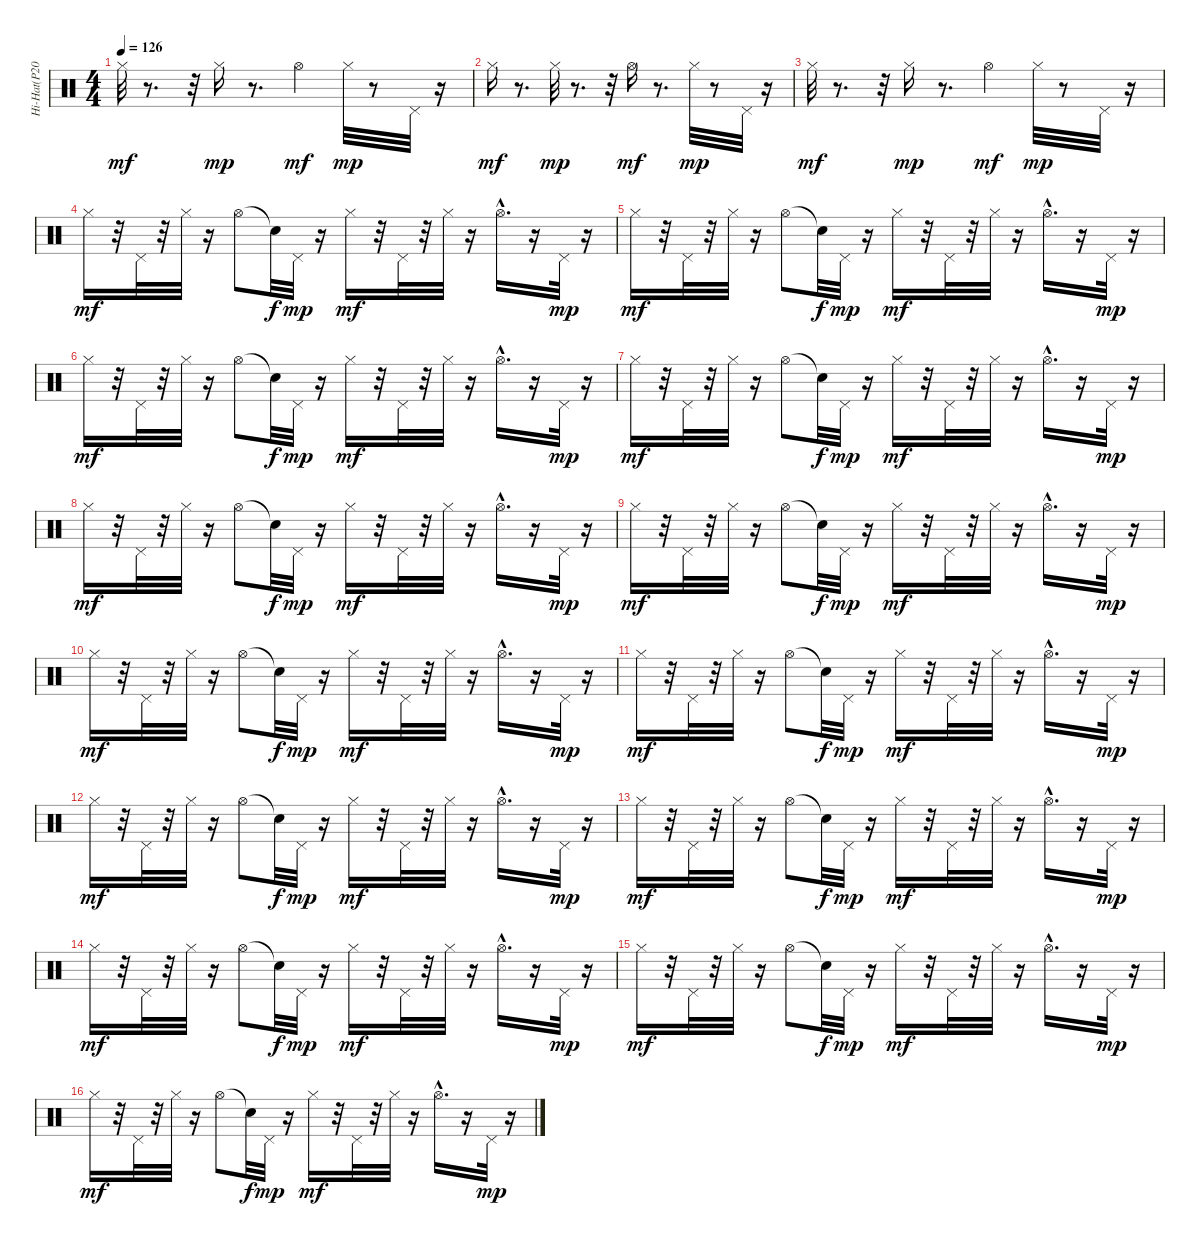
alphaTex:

\track ("Hi-Hat(P201)" "Hi-Hat(P20") {instrument percussion}
\staff {score}
\articulation defaults
\ts (4 4)
\tempo 126
\clef neutral
\ks c "Hi-Hat (closed)".32{dy mf}
r.8{d} r.32 "Hi-Hat (closed)".16{dy mp} r.8{d} "Hi-Hat (open)".4{dy mf} "Hi-Hat (closed)".32{dy mp} r.8 "Pedal Hi-Hat (hit)".32 r.16 |
"Hi-Hat (closed)".16{dy mf} r.8{d} "Hi-Hat (closed)".32{dy mp} r.8{d} r.32 "Hi-Hat (open)".16{dy mf} r.8{d} "Hi-Hat (closed)".32{dy mp} r.8 "Pedal Hi-Hat (hit)".32 r.16 |
"Hi-Hat (closed)".32{dy mf} r.8{d} r.32 "Hi-Hat (closed)".16{dy mp} r.8{d} "Hi-Hat (open)".4{dy mf} "Hi-Hat (closed)".32{dy mp} r.8 "Pedal Hi-Hat (hit)".32 r.16 |
"Hi-Hat (closed)".16{dy mf} r.32 "Pedal Hi-Hat (hit)".32 r.32 "Hi-Hat (closed)".32 r.16 "Hi-Hat (open)".8 "Snare (hit)"{t}.32{dy f} "Pedal Hi-Hat (hit)".32{dy mp} r.16 "Hi-Hat (closed)".16{dy mf} r.32 "Pedal Hi-Hat (hit)".32 r.32 "Hi-Hat (closed)".32 r.16 "Hi-Hat (open)"{hac}.16{d} r.16 "Pedal Hi-Hat (hit)".32{dy mp} r.16 |
"Hi-Hat (closed)".16{dy mf} r.32 "Pedal Hi-Hat (hit)".32 r.32 "Hi-Hat (closed)".32 r.16 "Hi-Hat (open)".8 "Snare (hit)"{t}.32{dy f} "Pedal Hi-Hat (hit)".32{dy mp} r.16 "Hi-Hat (closed)".16{dy mf} r.32 "Pedal Hi-Hat (hit)".32 r.32 "Hi-Hat (closed)".32 r.16 "Hi-Hat (open)"{hac}.16{d} r.16 "Pedal Hi-Hat (hit)".32{dy mp} r.16 |
"Hi-Hat (closed)".16{dy mf} r.32 "Pedal Hi-Hat (hit)".32 r.32 "Hi-Hat (closed)".32 r.16 "Hi-Hat (open)".8 "Snare (hit)"{t}.32{dy f} "Pedal Hi-Hat (hit)".32{dy mp} r.16 "Hi-Hat (closed)".16{dy mf} r.32 "Pedal Hi-Hat (hit)".32 r.32 "Hi-Hat (closed)".32 r.16 "Hi-Hat (open)"{hac}.16{d} r.16 "Pedal Hi-Hat (hit)".32{dy mp} r.16 |
"Hi-Hat (closed)".16{dy mf} r.32 "Pedal Hi-Hat (hit)".32 r.32 "Hi-Hat (closed)".32 r.16 "Hi-Hat (open)".8 "Snare (hit)"{t}.32{dy f} "Pedal Hi-Hat (hit)".32{dy mp} r.16 "Hi-Hat (closed)".16{dy mf} r.32 "Pedal Hi-Hat (hit)".32 r.32 "Hi-Hat (closed)".32 r.16 "Hi-Hat (open)"{hac}.16{d} r.16 "Pedal Hi-Hat (hit)".32{dy mp} r.16 |
"Hi-Hat (closed)".16{dy mf} r.32 "Pedal Hi-Hat (hit)".32 r.32 "Hi-Hat (closed)".32 r.16 "Hi-Hat (open)".8 "Snare (hit)"{t}.32{dy f} "Pedal Hi-Hat (hit)".32{dy mp} r.16 "Hi-Hat (closed)".16{dy mf} r.32 "Pedal Hi-Hat (hit)".32 r.32 "Hi-Hat (closed)".32 r.16 "Hi-Hat (open)"{hac}.16{d} r.16 "Pedal Hi-Hat (hit)".32{dy mp} r.16 |
"Hi-Hat (closed)".16{dy mf} r.32 "Pedal Hi-Hat (hit)".32 r.32 "Hi-Hat (closed)".32 r.16 "Hi-Hat (open)".8 "Snare (hit)"{t}.32{dy f} "Pedal Hi-Hat (hit)".32{dy mp} r.16 "Hi-Hat (closed)".16{dy mf} r.32 "Pedal Hi-Hat (hit)".32 r.32 "Hi-Hat (closed)".32 r.16 "Hi-Hat (open)"{hac}.16{d} r.16 "Pedal Hi-Hat (hit)".32{dy mp} r.16 |
"Hi-Hat (closed)".16{dy mf} r.32 "Pedal Hi-Hat (hit)".32 r.32 "Hi-Hat (closed)".32 r.16 "Hi-Hat (open)".8 "Snare (hit)"{t}.32{dy f} "Pedal Hi-Hat (hit)".32{dy mp} r.16 "Hi-Hat (closed)".16{dy mf} r.32 "Pedal Hi-Hat (hit)".32 r.32 "Hi-Hat (closed)".32 r.16 "Hi-Hat (open)"{hac}.16{d} r.16 "Pedal Hi-Hat (hit)".32{dy mp} r.16 |
"Hi-Hat (closed)".16{dy mf} r.32 "Pedal Hi-Hat (hit)".32 r.32 "Hi-Hat (closed)".32 r.16 "Hi-Hat (open)".8 "Snare (hit)"{t}.32{dy f} "Pedal Hi-Hat (hit)".32{dy mp} r.16 "Hi-Hat (closed)".16{dy mf} r.32 "Pedal Hi-Hat (hit)".32 r.32 "Hi-Hat (closed)".32 r.16 "Hi-Hat (open)"{hac}.16{d} r.16 "Pedal Hi-Hat (hit)".32{dy mp} r.16 |
"Hi-Hat (closed)".16{dy mf} r.32 "Pedal Hi-Hat (hit)".32 r.32 "Hi-Hat (closed)".32 r.16 "Hi-Hat (open)".8 "Snare (hit)"{t}.32{dy f} "Pedal Hi-Hat (hit)".32{dy mp} r.16 "Hi-Hat (closed)".16{dy mf} r.32 "Pedal Hi-Hat (hit)".32 r.32 "Hi-Hat (closed)".32 r.16 "Hi-Hat (open)"{hac}.16{d} r.16 "Pedal Hi-Hat (hit)".32{dy mp} r.16 |
"Hi-Hat (closed)".16{dy mf} r.32 "Pedal Hi-Hat (hit)".32 r.32 "Hi-Hat (closed)".32 r.16 "Hi-Hat (open)".8 "Snare (hit)"{t}.32{dy f} "Pedal Hi-Hat (hit)".32{dy mp} r.16 "Hi-Hat (closed)".16{dy mf} r.32 "Pedal Hi-Hat (hit)".32 r.32 "Hi-Hat (closed)".32 r.16 "Hi-Hat (open)"{hac}.16{d} r.16 "Pedal Hi-Hat (hit)".32{dy mp} r.16 |
"Hi-Hat (closed)".16{dy mf} r.32 "Pedal Hi-Hat (hit)".32 r.32 "Hi-Hat (closed)".32 r.16 "Hi-Hat (open)".8 "Snare (hit)"{t}.32{dy f} "Pedal Hi-Hat (hit)".32{dy mp} r.16 "Hi-Hat (closed)".16{dy mf} r.32 "Pedal Hi-Hat (hit)".32 r.32 "Hi-Hat (closed)".32 r.16 "Hi-Hat (open)"{hac}.16{d} r.16 "Pedal Hi-Hat (hit)".32{dy mp} r.16 |
"Hi-Hat (closed)".16{dy mf} r.32 "Pedal Hi-Hat (hit)".32 r.32 "Hi-Hat (closed)".32 r.16 "Hi-Hat (open)".8 "Snare (hit)"{t}.32{dy f} "Pedal Hi-Hat (hit)".32{dy mp} r.16 "Hi-Hat (closed)".16{dy mf} r.32 "Pedal Hi-Hat (hit)".32 r.32 "Hi-Hat (closed)".32 r.16 "Hi-Hat (open)"{hac}.16{d} r.16 "Pedal Hi-Hat (hit)".32{dy mp} r.16 |
"Hi-Hat (closed)".16{dy mf} r.32 "Pedal Hi-Hat (hit)".32 r.32 "Hi-Hat (closed)".32 r.16 "Hi-Hat (open)".8 "Snare (hit)"{t}.32{dy f} "Pedal Hi-Hat (hit)".32{dy mp} r.16 "Hi-Hat (closed)".16{dy mf} r.32 "Pedal Hi-Hat (hit)".32 r.32 "Hi-Hat (closed)".32 r.16 "Hi-Hat (open)"{hac}.16{d} r.16 "Pedal Hi-Hat (hit)".32{dy mp} r.16
